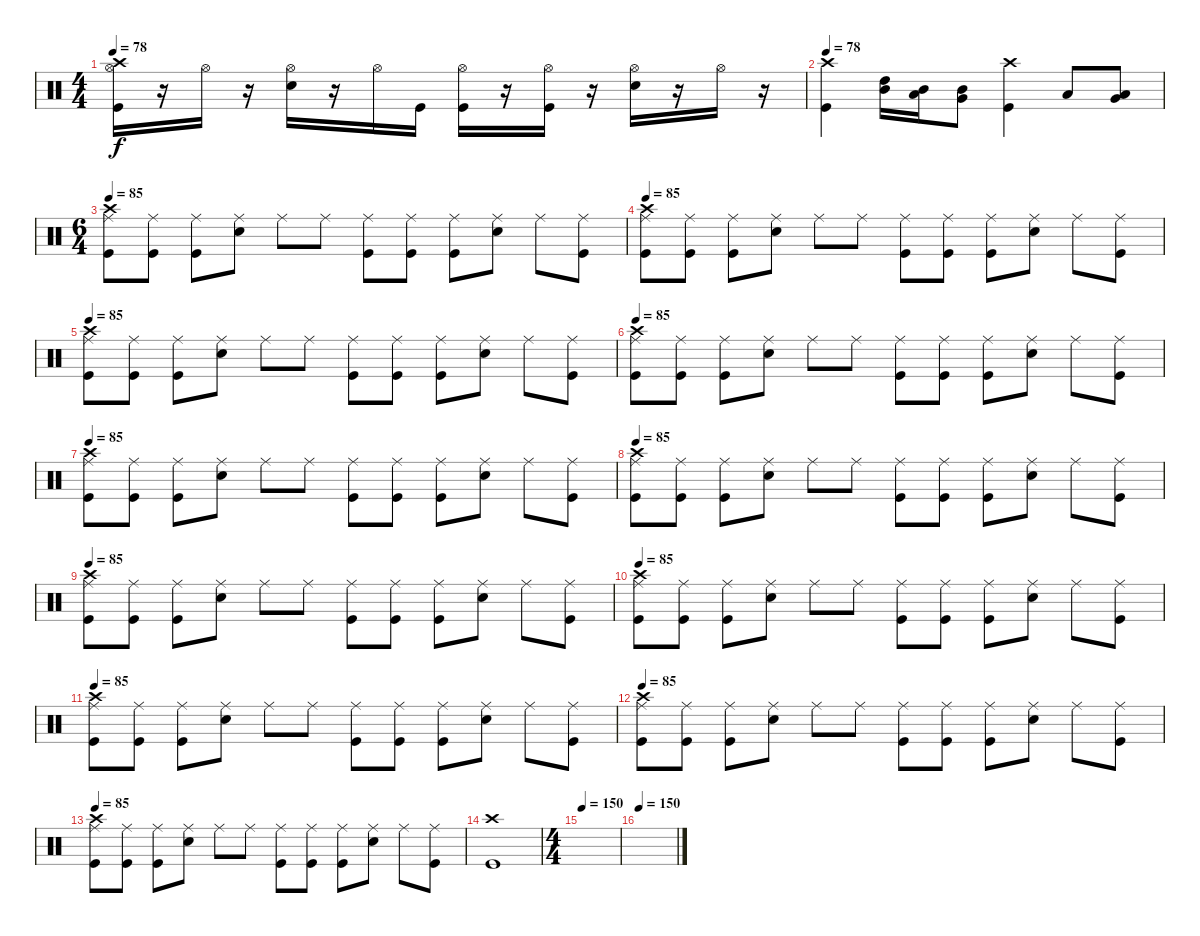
\track "" {instrument percussion}
\staff {score}
\articulation defaults
\ts (4 4)
\tempo 78
\clef neutral
\ks c
("Hi-Hat (open)" "Kick (hit)" "Crash high (hit)").16{dy f} r.16 "Hi-Hat (open)".16 r.16 ("Hi-Hat (open)" "Snare (hit) 2").16 r.16 "Hi-Hat (open)".16 "Kick (hit)".16 ("Hi-Hat (open)" "Kick (hit)").16 r.16 ("Hi-Hat (open)" "Kick (hit)").16 r.16 ("Hi-Hat (open)" "Snare (hit) 2").16 r.16 "Hi-Hat (open)".16 r.16 |
\tempo 78
("Crash high (hit)" "Kick (hit)").4 ("High Tom (hit)" "Mid Tom (hit)").16 ("Mid Tom (hit)" "Low Tom (hit)").16 ("Mid Tom (hit)" "Very Low Tom (hit)").8 ("Kick (hit)" "Crash high (hit)").4 "Low Tom (hit)".8 ("Low Tom (hit)" "Very Low Tom (hit)").8 |
\ts (6 4)
\tempo 85
("Ride (middle)" "Crash high (hit)" "Kick (hit)").8 ("Ride (middle)" "Kick (hit)").8 ("Ride (middle)" "Kick (hit)").8 ("Ride (middle)" "Snare (hit) 2").8 "Ride (middle)".8 "Ride (middle)".8 ("Ride (middle)" "Kick (hit)").8 ("Ride (middle)" "Kick (hit)").8 ("Ride (middle)" "Kick (hit)").8 ("Ride (middle)" "Snare (hit) 2").8 "Ride (middle)".8 ("Ride (middle)" "Kick (hit)").8 |
\tempo 85
("Ride (middle)" "Crash high (hit)" "Kick (hit)").8 ("Ride (middle)" "Kick (hit)").8 ("Ride (middle)" "Kick (hit)").8 ("Ride (middle)" "Snare (hit) 2").8 "Ride (middle)".8 "Ride (middle)".8 ("Ride (middle)" "Kick (hit)").8 ("Ride (middle)" "Kick (hit)").8 ("Ride (middle)" "Kick (hit)").8 ("Ride (middle)" "Snare (hit) 2").8 "Ride (middle)".8 ("Ride (middle)" "Kick (hit)").8 |
\tempo 85
("Ride (middle)" "Crash high (hit)" "Kick (hit)").8 ("Ride (middle)" "Kick (hit)").8 ("Ride (middle)" "Kick (hit)").8 ("Ride (middle)" "Snare (hit) 2").8 "Ride (middle)".8 "Ride (middle)".8 ("Ride (middle)" "Kick (hit)").8 ("Ride (middle)" "Kick (hit)").8 ("Ride (middle)" "Kick (hit)").8 ("Ride (middle)" "Snare (hit) 2").8 "Ride (middle)".8 ("Ride (middle)" "Kick (hit)").8 |
\tempo 85
("Ride (middle)" "Crash high (hit)" "Kick (hit)").8 ("Ride (middle)" "Kick (hit)").8 ("Ride (middle)" "Kick (hit)").8 ("Ride (middle)" "Snare (hit) 2").8 "Ride (middle)".8 "Ride (middle)".8 ("Ride (middle)" "Kick (hit)").8 ("Ride (middle)" "Kick (hit)").8 ("Ride (middle)" "Kick (hit)").8 ("Ride (middle)" "Snare (hit) 2").8 "Ride (middle)".8 ("Ride (middle)" "Kick (hit)").8 |
\tempo 85
("Ride (middle)" "Crash high (hit)" "Kick (hit)").8 ("Ride (middle)" "Kick (hit)").8 ("Ride (middle)" "Kick (hit)").8 ("Ride (middle)" "Snare (hit) 2").8 "Ride (middle)".8 "Ride (middle)".8 ("Ride (middle)" "Kick (hit)").8 ("Ride (middle)" "Kick (hit)").8 ("Ride (middle)" "Kick (hit)").8 ("Ride (middle)" "Snare (hit) 2").8 "Ride (middle)".8 ("Ride (middle)" "Kick (hit)").8 |
\tempo 85
("Ride (middle)" "Crash high (hit)" "Kick (hit)").8 ("Ride (middle)" "Kick (hit)").8 ("Ride (middle)" "Kick (hit)").8 ("Ride (middle)" "Snare (hit) 2").8 "Ride (middle)".8 "Ride (middle)".8 ("Ride (middle)" "Kick (hit)").8 ("Ride (middle)" "Kick (hit)").8 ("Ride (middle)" "Kick (hit)").8 ("Ride (middle)" "Snare (hit) 2").8 "Ride (middle)".8 ("Ride (middle)" "Kick (hit)").8 |
\tempo 85
("Ride (middle)" "Crash high (hit)" "Kick (hit)").8 ("Ride (middle)" "Kick (hit)").8 ("Ride (middle)" "Kick (hit)").8 ("Ride (middle)" "Snare (hit) 2").8 "Ride (middle)".8 "Ride (middle)".8 ("Ride (middle)" "Kick (hit)").8 ("Ride (middle)" "Kick (hit)").8 ("Ride (middle)" "Kick (hit)").8 ("Ride (middle)" "Snare (hit) 2").8 "Ride (middle)".8 ("Ride (middle)" "Kick (hit)").8 |
\tempo 85
("Ride (middle)" "Crash high (hit)" "Kick (hit)").8 ("Ride (middle)" "Kick (hit)").8 ("Ride (middle)" "Kick (hit)").8 ("Ride (middle)" "Snare (hit) 2").8 "Ride (middle)".8 "Ride (middle)".8 ("Ride (middle)" "Kick (hit)").8 ("Ride (middle)" "Kick (hit)").8 ("Ride (middle)" "Kick (hit)").8 ("Ride (middle)" "Snare (hit) 2").8 "Ride (middle)".8 ("Ride (middle)" "Kick (hit)").8 |
\tempo 85
("Ride (middle)" "Crash high (hit)" "Kick (hit)").8 ("Ride (middle)" "Kick (hit)").8 ("Ride (middle)" "Kick (hit)").8 ("Ride (middle)" "Snare (hit) 2").8 "Ride (middle)".8 "Ride (middle)".8 ("Ride (middle)" "Kick (hit)").8 ("Ride (middle)" "Kick (hit)").8 ("Ride (middle)" "Kick (hit)").8 ("Ride (middle)" "Snare (hit) 2").8 "Ride (middle)".8 ("Ride (middle)" "Kick (hit)").8 |
\tempo 85
("Ride (middle)" "Crash high (hit)" "Kick (hit)").8 ("Ride (middle)" "Kick (hit)").8 ("Ride (middle)" "Kick (hit)").8 ("Ride (middle)" "Snare (hit) 2").8 "Ride (middle)".8 "Ride (middle)".8 ("Ride (middle)" "Kick (hit)").8 ("Ride (middle)" "Kick (hit)").8 ("Ride (middle)" "Kick (hit)").8 ("Ride (middle)" "Snare (hit) 2").8 "Ride (middle)".8 ("Ride (middle)" "Kick (hit)").8 |
\tempo 85
("Ride (middle)" "Crash high (hit)" "Kick (hit)").8 ("Ride (middle)" "Kick (hit)").8 ("Ride (middle)" "Kick (hit)").8 ("Ride (middle)" "Snare (hit) 2").8 "Ride (middle)".8 "Ride (middle)".8 ("Ride (middle)" "Kick (hit)").8 ("Ride (middle)" "Kick (hit)").8 ("Ride (middle)" "Kick (hit)").8 ("Ride (middle)" "Snare (hit) 2").8 "Ride (middle)".8 ("Ride (middle)" "Kick (hit)").8 |
("Crash high (hit)" "Kick (hit)").1 |
\ts (4 4)
\tempo 150
|
\tempo 150
